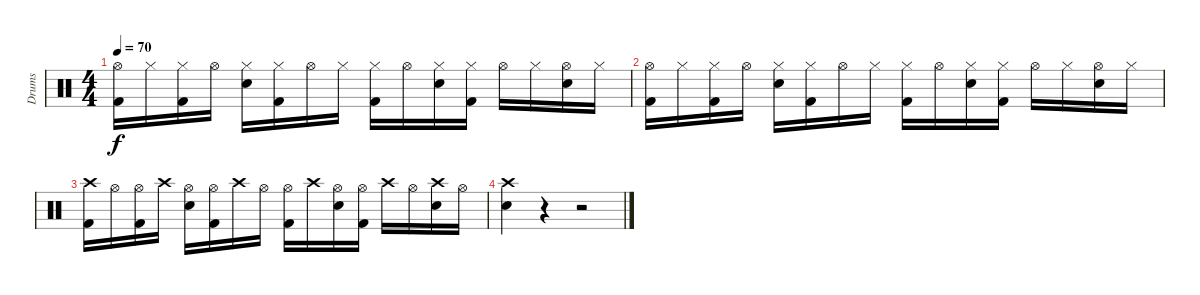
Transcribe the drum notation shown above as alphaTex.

\track ("Drums" "Drums") {instrument percussion}
\staff {score}
\articulation defaults
\ts (4 4)
\tempo 70
\clef neutral
\ks c
("Hi-Hat (open)" "Kick (hit) 2").16{dy f} "Hi-Hat (closed)".16 ("Hi-Hat (closed)" "Kick (hit) 2").16 "Hi-Hat (open)".16 ("Hi-Hat (closed)" "Electric Snare (hit)").16 ("Hi-Hat (closed)" "Kick (hit) 2").16 "Hi-Hat (open)".16 "Hi-Hat (closed)".16 ("Hi-Hat (closed)" "Kick (hit) 2").16 "Hi-Hat (open)".16 ("Hi-Hat (closed)" "Electric Snare (hit)").16 ("Hi-Hat (closed)" "Kick (hit) 2").16 "Hi-Hat (open)".16 "Hi-Hat (closed)".16 ("Hi-Hat (open)" "Electric Snare (hit)").16 "Hi-Hat (closed)".16 |
("Hi-Hat (open)" "Kick (hit) 2").16 "Hi-Hat (closed)".16 ("Hi-Hat (closed)" "Kick (hit) 2").16 "Hi-Hat (open)".16 ("Hi-Hat (closed)" "Electric Snare (hit)").16 ("Hi-Hat (closed)" "Kick (hit) 2").16 "Hi-Hat (open)".16 "Hi-Hat (closed)".16 ("Hi-Hat (closed)" "Kick (hit) 2").16 "Hi-Hat (open)".16 ("Hi-Hat (closed)" "Electric Snare (hit)").16 ("Hi-Hat (closed)" "Kick (hit) 2").16 "Hi-Hat (open)".16 "Hi-Hat (closed)".16 ("Hi-Hat (open)" "Electric Snare (hit)").16 "Hi-Hat (closed)".16 |
("Crash high (hit)" "Kick (hit) 2").16 "Hi-Hat (open)".16 ("Hi-Hat (open)" "Kick (hit) 2").16 "Crash high (hit)".16 ("Hi-Hat (open)" "Electric Snare (hit)").16 ("Hi-Hat (open)" "Kick (hit) 2").16 "Crash high (hit)".16 "Hi-Hat (open)".16 ("Hi-Hat (open)" "Kick (hit) 2").16 "Crash high (hit)".16 ("Hi-Hat (open)" "Electric Snare (hit)").16 ("Hi-Hat (open)" "Kick (hit) 2").16 "Crash high (hit)".16 "Hi-Hat (open)".16 ("Crash high (hit)" "Electric Snare (hit)").16 "Hi-Hat (open)".16 |
("Crash high (hit)" "Electric Snare (hit)").4 r.4 r.2
